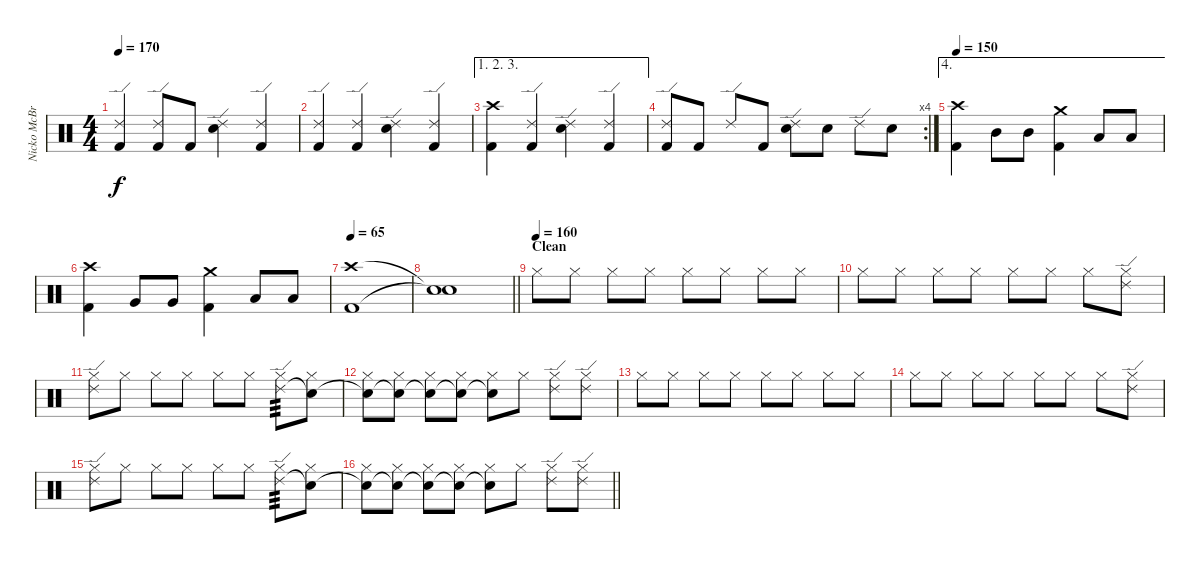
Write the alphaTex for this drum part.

\track ("Nicko McBrain" "Nicko McBr") {instrument percussion}
\staff {score}
\articulation defaults
\ts (4 4)
\tempo 170
\clef neutral
\ks c
("Ride (edge) 2" "Kick (hit) 2").4{dy f} ("Ride (edge) 2" "Kick (hit) 2").8 "Kick (hit) 2".8 ("Ride (edge) 2" "Electric Snare (hit)").4 ("Ride (edge) 2" "Kick (hit) 2").4 |
("Ride (edge) 2" "Kick (hit) 2").4 ("Ride (edge) 2" "Kick (hit) 2").4 ("Ride (edge) 2" "Electric Snare (hit)").4 ("Ride (edge) 2" "Kick (hit) 2").4 |
\ae (1 2 3)
("Crash high (hit)" "Kick (hit) 2").4 ("Ride (edge) 2" "Kick (hit) 2").4 ("Ride (edge) 2" "Electric Snare (hit)").4 ("Ride (edge) 2" "Kick (hit) 2").4 |
\rc 4
("Ride (edge) 2" "Kick (hit) 2").8 "Kick (hit) 2".8 "Ride (edge) 2".8 "Kick (hit) 2".8 ("Ride (edge) 2" "Electric Snare (hit)").8 "Electric Snare (hit)".8 "Ride (edge) 2".8 "Electric Snare (hit)".8 |
\ae 4
\tempo 150
("Crash high (hit)" "Kick (hit) 2").4 "Mid Tom (hit)".8 "Mid Tom (hit)".8 ("Crash medium (hit)" "Kick (hit) 2").4 "Low Tom (hit)".8 "Low Tom (hit)".8 |
("Crash high (hit)" "Kick (hit) 2").4 "Very Low Tom (hit)".8 "Very Low Tom (hit)".8 ("Crash medium (hit)" "Kick (hit) 2").4 "Low Floor Tom (hit)".8 "Low Floor Tom (hit)".8 |
\tempo 65
("Crash high (hit)" "Kick (hit) 2").1 |
\barLineRight lightlight
("Snare (hit)"{t} "Snare (hit)"{t}).1{volume 3} |
\section ("" "Clean")
\tempo (160)
"Hi-Hat (closed)".8{volume 10} "Hi-Hat (closed)".8 "Hi-Hat (closed)".8 "Hi-Hat (closed)".8 "Hi-Hat (closed)".8 "Hi-Hat (closed)".8 "Hi-Hat (closed)".8 "Hi-Hat (closed)".8 |
"Hi-Hat (closed)".8 "Hi-Hat (closed)".8 "Hi-Hat (closed)".8 "Hi-Hat (closed)".8 "Hi-Hat (closed)".8 "Hi-Hat (closed)".8 "Hi-Hat (closed)".8 ("Ride (edge) 2" "Hi-Hat (closed)").8 |
("Ride (edge) 2" "Hi-Hat (closed)").8 "Hi-Hat (closed)".8 "Hi-Hat (closed)".8 "Hi-Hat (closed)".8 "Hi-Hat (closed)".8 "Hi-Hat (closed)".8 ("Ride (edge) 2" "Hi-Hat (closed)").8{tp 3} ("Snare (hit)"{t} "Hi-Hat (closed)").8 |
("Snare (hit)"{t} "Hi-Hat (closed)").8 ("Snare (hit)"{t} "Hi-Hat (closed)").8 ("Snare (hit)"{t} "Hi-Hat (closed)").8 ("Snare (hit)"{t} "Hi-Hat (closed)").8 ("Snare (hit)"{t} "Hi-Hat (closed)").8 "Hi-Hat (closed)".8 ("Ride (edge) 2" "Hi-Hat (closed)").8 ("Ride (edge) 2" "Hi-Hat (closed)").8 |
"Hi-Hat (closed)".8 "Hi-Hat (closed)".8 "Hi-Hat (closed)".8 "Hi-Hat (closed)".8 "Hi-Hat (closed)".8 "Hi-Hat (closed)".8 "Hi-Hat (closed)".8 "Hi-Hat (closed)".8 |
"Hi-Hat (closed)".8 "Hi-Hat (closed)".8 "Hi-Hat (closed)".8 "Hi-Hat (closed)".8 "Hi-Hat (closed)".8 "Hi-Hat (closed)".8 "Hi-Hat (closed)".8 ("Ride (edge) 2" "Hi-Hat (closed)").8 |
("Ride (edge) 2" "Hi-Hat (closed)").8 "Hi-Hat (closed)".8 "Hi-Hat (closed)".8 "Hi-Hat (closed)".8 "Hi-Hat (closed)".8 "Hi-Hat (closed)".8 ("Ride (edge) 2" "Hi-Hat (closed)").8{tp 3} ("Snare (hit)"{t} "Hi-Hat (closed)").8 |
\barLineRight lightlight
("Snare (hit)"{t} "Hi-Hat (closed)").8 ("Snare (hit)"{t} "Hi-Hat (closed)").8 ("Snare (hit)"{t} "Hi-Hat (closed)").8 ("Snare (hit)"{t} "Hi-Hat (closed)").8 ("Snare (hit)"{t} "Hi-Hat (closed)").8 "Hi-Hat (closed)".8 ("Ride (edge) 2" "Hi-Hat (closed)").8 ("Ride (edge) 2" "Hi-Hat (closed)").8
